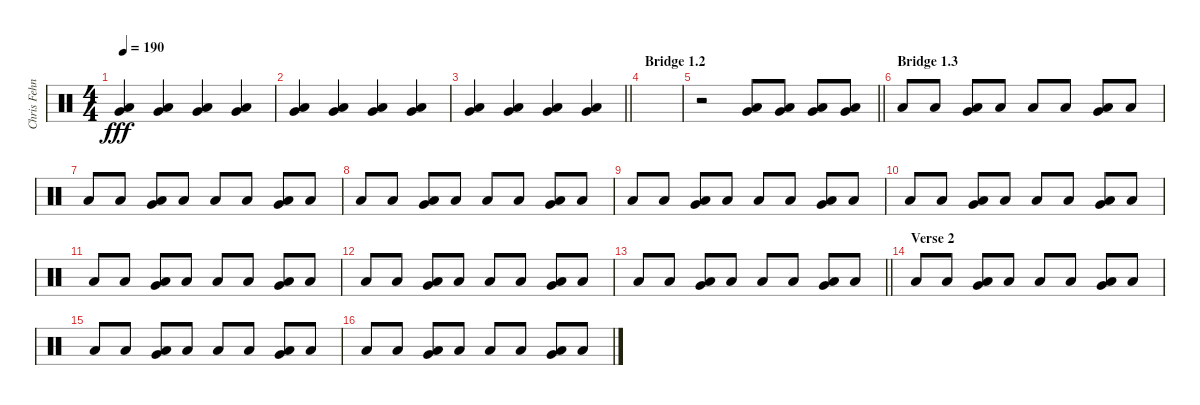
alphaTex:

\track ("Chris Fehn" "Chris Fehn") {instrument percussion}
\staff {score}
\articulation defaults
\ts (4 4)
\tempo 190
\clef neutral
\ks c
("Very Low Tom (hit)" "Low Floor Tom (hit)").4{dy fff} ("Very Low Tom (hit)" "Low Floor Tom (hit)").4 ("Very Low Tom (hit)" "Low Floor Tom (hit)").4 ("Very Low Tom (hit)" "Low Floor Tom (hit)").4 |
("Very Low Tom (hit)" "Low Floor Tom (hit)").4 ("Very Low Tom (hit)" "Low Floor Tom (hit)").4 ("Very Low Tom (hit)" "Low Floor Tom (hit)").4 ("Very Low Tom (hit)" "Low Floor Tom (hit)").4 |
\barLineRight lightlight
("Very Low Tom (hit)" "Low Floor Tom (hit)").4 ("Very Low Tom (hit)" "Low Floor Tom (hit)").4 ("Very Low Tom (hit)" "Low Floor Tom (hit)").4 ("Very Low Tom (hit)" "Low Floor Tom (hit)").4 |
\section ("" "Bridge 1.2")
|
\barLineRight lightlight
r.2 ("Very Low Tom (hit)" "Low Floor Tom (hit)").8 ("Very Low Tom (hit)" "Low Floor Tom (hit)").8 ("Very Low Tom (hit)" "Low Floor Tom (hit)").8 ("Very Low Tom (hit)" "Low Floor Tom (hit)").8 |
\section ("" "Bridge 1.3")
"Low Floor Tom (hit)".8 "Low Floor Tom (hit)".8 ("Very Low Tom (hit)" "Low Floor Tom (hit)").8 "Low Floor Tom (hit)".8 "Low Floor Tom (hit)".8 "Low Floor Tom (hit)".8 ("Very Low Tom (hit)" "Low Floor Tom (hit)").8 "Low Floor Tom (hit)".8 |
"Low Floor Tom (hit)".8 "Low Floor Tom (hit)".8 ("Very Low Tom (hit)" "Low Floor Tom (hit)").8 "Low Floor Tom (hit)".8 "Low Floor Tom (hit)".8 "Low Floor Tom (hit)".8 ("Very Low Tom (hit)" "Low Floor Tom (hit)").8 "Low Floor Tom (hit)".8 |
"Low Floor Tom (hit)".8 "Low Floor Tom (hit)".8 ("Very Low Tom (hit)" "Low Floor Tom (hit)").8 "Low Floor Tom (hit)".8 "Low Floor Tom (hit)".8 "Low Floor Tom (hit)".8 ("Very Low Tom (hit)" "Low Floor Tom (hit)").8 "Low Floor Tom (hit)".8 |
"Low Floor Tom (hit)".8 "Low Floor Tom (hit)".8 ("Very Low Tom (hit)" "Low Floor Tom (hit)").8 "Low Floor Tom (hit)".8 "Low Floor Tom (hit)".8 "Low Floor Tom (hit)".8 ("Very Low Tom (hit)" "Low Floor Tom (hit)").8 "Low Floor Tom (hit)".8 |
"Low Floor Tom (hit)".8 "Low Floor Tom (hit)".8 ("Very Low Tom (hit)" "Low Floor Tom (hit)").8 "Low Floor Tom (hit)".8 "Low Floor Tom (hit)".8 "Low Floor Tom (hit)".8 ("Very Low Tom (hit)" "Low Floor Tom (hit)").8 "Low Floor Tom (hit)".8 |
"Low Floor Tom (hit)".8 "Low Floor Tom (hit)".8 ("Very Low Tom (hit)" "Low Floor Tom (hit)").8 "Low Floor Tom (hit)".8 "Low Floor Tom (hit)".8 "Low Floor Tom (hit)".8 ("Very Low Tom (hit)" "Low Floor Tom (hit)").8 "Low Floor Tom (hit)".8 |
"Low Floor Tom (hit)".8 "Low Floor Tom (hit)".8 ("Very Low Tom (hit)" "Low Floor Tom (hit)").8 "Low Floor Tom (hit)".8 "Low Floor Tom (hit)".8 "Low Floor Tom (hit)".8 ("Very Low Tom (hit)" "Low Floor Tom (hit)").8 "Low Floor Tom (hit)".8 |
\barLineRight lightlight "Low Floor Tom (hit)".8 "Low Floor Tom (hit)".8
("Very Low Tom (hit)" "Low Floor Tom (hit)").8 "Low Floor Tom (hit)".8 "Low Floor Tom (hit)".8 "Low Floor Tom (hit)".8 ("Very Low Tom (hit)" "Low Floor Tom (hit)").8 "Low Floor Tom (hit)".8 |
\section ("" "Verse 2")
"Low Floor Tom (hit)".8 "Low Floor Tom (hit)".8 ("Very Low Tom (hit)" "Low Floor Tom (hit)").8 "Low Floor Tom (hit)".8 "Low Floor Tom (hit)".8 "Low Floor Tom (hit)".8 ("Very Low Tom (hit)" "Low Floor Tom (hit)").8 "Low Floor Tom (hit)".8 |
"Low Floor Tom (hit)".8 "Low Floor Tom (hit)".8 ("Very Low Tom (hit)" "Low Floor Tom (hit)").8 "Low Floor Tom (hit)".8 "Low Floor Tom (hit)".8 "Low Floor Tom (hit)".8 ("Very Low Tom (hit)" "Low Floor Tom (hit)").8 "Low Floor Tom (hit)".8 |
"Low Floor Tom (hit)".8 "Low Floor Tom (hit)".8 ("Very Low Tom (hit)" "Low Floor Tom (hit)").8 "Low Floor Tom (hit)".8 "Low Floor Tom (hit)".8 "Low Floor Tom (hit)".8 ("Very Low Tom (hit)" "Low Floor Tom (hit)").8 "Low Floor Tom (hit)".8
